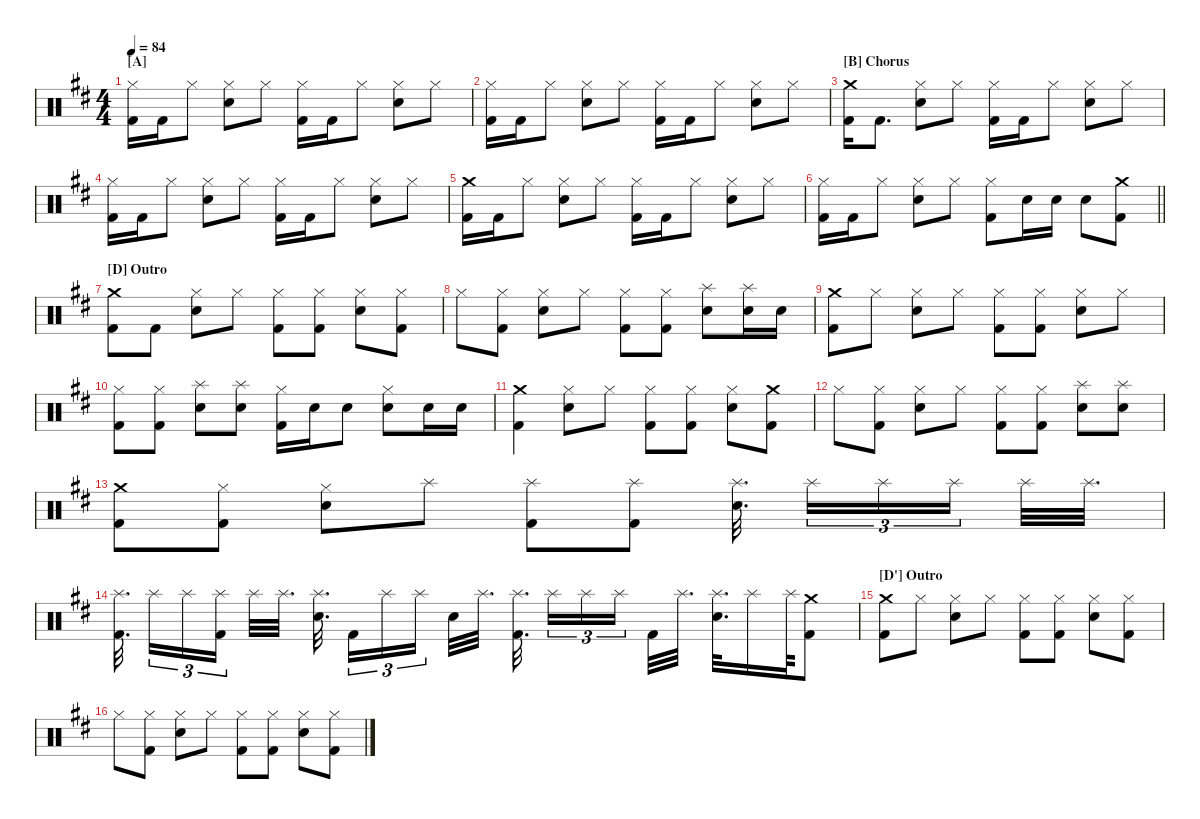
\hideDynamics
\bracketExtendMode nobrackets
\singleTrackTrackNamePolicy hidden
\multiTrackTrackNamePolicy hidden
\otherSystemsTrackNameOrientation horizontal
\track ("Drumkit" "Drums") {instrument percussion}
\staff {score}
\articulation defaults
\ts (4 4)
\section ("A" "")
\tempo 84
\clef neutral
\ks d
("Kick (hit) 2"{acc forcenatural} "Hi-Hat (closed)"{acc forcenatural}).16{dy f beam Down} "Kick (hit) 2"{acc forcenatural}.16{beam Down} "Hi-Hat (closed)"{acc forcenatural}.8{beam Down} ("Snare (hit) 2"{acc forcenatural} "Hi-Hat (closed)"{acc forcenatural}).8{beam Down} "Hi-Hat (closed)"{acc forcenatural}.8{beam Down} ("Kick (hit) 2"{acc forcenatural} "Hi-Hat (closed)"{acc forcenatural}).16{beam Down} "Kick (hit) 2"{acc forcenatural}.16{beam Down} "Hi-Hat (closed)"{acc forcenatural}.8{beam Down} ("Snare (hit) 2"{acc forcenatural} "Hi-Hat (closed)"{acc forcenatural}).8{beam Down} "Hi-Hat (closed)"{acc forcenatural}.8{beam Down} |
("Kick (hit) 2"{acc forcenatural} "Hi-Hat (closed)"{acc forcenatural}).16{beam Down} "Kick (hit) 2"{acc forcenatural}.16{beam Down} "Hi-Hat (closed)"{acc forcenatural}.8{beam Down} ("Snare (hit) 2"{acc forcenatural} "Hi-Hat (closed)"{acc forcenatural}).8{beam Down} "Hi-Hat (closed)"{acc forcenatural}.8{beam Down} ("Kick (hit) 2"{acc forcenatural} "Hi-Hat (closed)"{acc forcenatural}).16{beam Down} "Kick (hit) 2"{acc forcenatural}.16{beam Down} "Hi-Hat (closed)"{acc forcenatural}.8{beam Down} ("Snare (hit) 2"{acc forcenatural} "Hi-Hat (closed)"{acc forcenatural}).8{beam Down} "Hi-Hat (closed)"{acc forcenatural}.8{beam Down} |
\section ("B" "Chorus")
("Kick (hit) 2"{acc forcenatural} "Crash medium (hit)"{acc forcenatural}).16{beam Down} "Kick (hit) 2"{acc forcenatural}.8{d beam Down} ("Snare (hit) 2"{acc forcenatural} "Hi-Hat (closed)"{acc forcenatural}).8{beam Down} "Hi-Hat (closed)"{acc forcenatural}.8{beam Down} ("Kick (hit) 2"{acc forcenatural} "Hi-Hat (closed)"{acc forcenatural}).16{beam Down} "Kick (hit) 2"{acc forcenatural}.16{beam Down} "Hi-Hat (closed)"{acc forcenatural}.8{beam Down} ("Snare (hit) 2"{acc forcenatural} "Hi-Hat (closed)"{acc forcenatural}).8{beam Down} "Hi-Hat (closed)"{acc forcenatural}.8{beam Down} |
("Kick (hit) 2"{acc forcenatural} "Hi-Hat (closed)"{acc forcenatural}).16{beam Down} "Kick (hit) 2"{acc forcenatural}.16{beam Down} "Hi-Hat (closed)"{acc forcenatural}.8{beam Down} ("Snare (hit) 2"{acc forcenatural} "Hi-Hat (closed)"{acc forcenatural}).8{beam Down} "Hi-Hat (closed)"{acc forcenatural}.8{beam Down} ("Kick (hit) 2"{acc forcenatural} "Hi-Hat (closed)"{acc forcenatural}).16{beam Down} "Kick (hit) 2"{acc forcenatural}.16{beam Down} "Hi-Hat (closed)"{acc forcenatural}.8{beam Down} ("Snare (hit) 2"{acc forcenatural} "Hi-Hat (closed)"{acc forcenatural}).8{beam Down} "Hi-Hat (closed)"{acc forcenatural}.8{beam Down} |
("Kick (hit) 2"{acc forcenatural} "Crash medium (hit)"{acc forcenatural}).16{beam Down} "Kick (hit) 2"{acc forcenatural}.16{beam Down} "Hi-Hat (closed)"{acc forcenatural}.8{beam Down} ("Snare (hit) 2"{acc forcenatural} "Hi-Hat (closed)"{acc forcenatural}).8{beam Down} "Hi-Hat (closed)"{acc forcenatural}.8{beam Down} ("Kick (hit) 2"{acc forcenatural} "Hi-Hat (closed)"{acc forcenatural}).16{beam Down} "Kick (hit) 2"{acc forcenatural}.16{beam Down} "Hi-Hat (closed)"{acc forcenatural}.8{beam Down} ("Snare (hit) 2"{acc forcenatural} "Hi-Hat (closed)"{acc forcenatural}).8{beam Down} "Hi-Hat (closed)"{acc forcenatural}.8{beam Down} |
\barLineRight lightlight
("Kick (hit) 2"{acc forcenatural} "Hi-Hat (closed)"{acc forcenatural}).16{beam Down} "Kick (hit) 2"{acc forcenatural}.16{beam Down} "Hi-Hat (closed)"{acc forcenatural}.8{beam Down} ("Snare (hit) 2"{acc forcenatural} "Hi-Hat (closed)"{acc forcenatural}).8{beam Down} "Hi-Hat (closed)"{acc forcenatural}.8{beam Down} ("Kick (hit) 2"{acc forcenatural} "Hi-Hat (closed)"{acc forcenatural}).8{beam Down} "Snare (hit) 2"{acc forcenatural}.16{beam Down} "Snare (hit) 2"{acc forcenatural}.16{beam Down} "Snare (hit) 2"{acc forcenatural}.8{beam Down} ("Kick (hit) 2"{acc forcenatural} "Crash medium (hit)"{acc forcenatural}).8{beam Down} |
\section ("D" "Outro")
("Kick (hit) 2"{acc forcenatural} "Crash medium (hit)"{acc forcenatural}).8{beam Down} "Kick (hit) 2"{acc forcenatural}.8{beam Down} ("Snare (hit) 2"{acc forcenatural} "Hi-Hat (closed)"{acc forcenatural}).8{beam Down} "Hi-Hat (closed)"{acc forcenatural}.8{beam Down} ("Kick (hit) 2"{acc forcenatural} "Hi-Hat (closed)"{acc forcenatural}).8{beam Down} ("Kick (hit) 2"{acc forcenatural} "Hi-Hat (closed)"{acc forcenatural}).8{beam Down} ("Snare (hit) 2"{acc forcenatural} "Hi-Hat (closed)"{acc forcenatural}).8{beam Down} ("Kick (hit) 2"{acc forcenatural} "Hi-Hat (closed)"{acc forcenatural}).8{beam Down} |
"Hi-Hat (closed)"{acc forcenatural}.8{beam Down} ("Kick (hit) 2"{acc forcenatural} "Hi-Hat (closed)"{acc forcenatural}).8{beam Down} ("Snare (hit) 2"{acc forcenatural} "Hi-Hat (closed)"{acc forcenatural}).8{beam Down} "Hi-Hat (closed)"{acc forcenatural}.8{beam Down} ("Kick (hit) 2"{acc forcenatural} "Hi-Hat (closed)"{acc forcenatural}).8{beam Down} ("Kick (hit) 2"{acc forcenatural} "Hi-Hat (closed)"{acc forcenatural}).8{beam Down} ("Snare (hit) 2"{acc forcenatural} "Splash (hit)"{acc forcenatural}).8{beam Down} ("Snare (hit) 2"{acc forcenatural} "Splash (hit)"{acc forcenatural}).16{beam Down} "Snare (hit) 2"{acc forcenatural}.16{beam Down} |
("Kick (hit) 2"{acc forcenatural} "Crash medium (hit)"{acc forcenatural}).8{beam Down} "Hi-Hat (closed)"{acc forcenatural}.8{beam Down} ("Snare (hit) 2"{acc forcenatural} "Hi-Hat (closed)"{acc forcenatural}).8{beam Down} "Hi-Hat (closed)"{acc forcenatural}.8{beam Down} ("Kick (hit) 2"{acc forcenatural} "Hi-Hat (closed)"{acc forcenatural}).8{beam Down} ("Kick (hit) 2"{acc forcenatural} "Hi-Hat (closed)"{acc forcenatural}).8{beam Down} ("Snare (hit) 2"{acc forcenatural} "Hi-Hat (closed)"{acc forcenatural}).8{beam Down} "Hi-Hat (closed)"{acc forcenatural}.8{beam Down} |
("Kick (hit) 2"{acc forcenatural} "Hi-Hat (closed)"{acc forcenatural}).8{beam Down} ("Kick (hit) 2"{acc forcenatural} "Hi-Hat (closed)"{acc forcenatural}).8{beam Down} ("Snare (hit) 2"{acc forcenatural} "Splash (hit)"{acc forcenatural}).8{beam Down} ("Snare (hit) 2"{acc forcenatural} "Splash (hit)"{acc forcenatural}).8{beam Down} ("Kick (hit) 2"{acc forcenatural} "Hi-Hat (closed)"{acc forcenatural}).16{beam Down} "Snare (hit) 2"{acc forcenatural}.16{beam Down} "Snare (hit) 2"{acc forcenatural}.8{beam Down} ("Snare (hit) 2"{acc forcenatural} "Hi-Hat (closed)"{acc forcenatural}).8{beam Down} "Snare (hit) 2"{acc forcenatural}.16{beam Down} "Snare (hit) 2"{acc forcenatural}.16{beam Down} |
("Kick (hit) 2"{acc forcenatural} "Crash medium (hit)"{acc forcenatural}).4{beam Down} ("Snare (hit) 2"{acc forcenatural} "Hi-Hat (closed)"{acc forcenatural}).8{beam Down} "Hi-Hat (closed)"{acc forcenatural}.8{beam Down} ("Kick (hit) 2"{acc forcenatural} "Hi-Hat (closed)"{acc forcenatural}).8{beam Down} ("Kick (hit) 2"{acc forcenatural} "Hi-Hat (closed)"{acc forcenatural}).8{beam Down} ("Snare (hit) 2"{acc forcenatural} "Hi-Hat (closed)"{acc forcenatural}).8{beam Down} ("Kick (hit) 2"{acc forcenatural} "Crash medium (hit)"{acc forcenatural}).8{beam Down} |
"Hi-Hat (closed)"{acc forcenatural}.8{beam Down} ("Kick (hit) 2"{acc forcenatural} "Hi-Hat (closed)"{acc forcenatural}).8{beam Down} ("Snare (hit) 2"{acc forcenatural} "Hi-Hat (closed)"{acc forcenatural}).8{beam Down} "Hi-Hat (closed)"{acc forcenatural}.8{beam Down} ("Kick (hit) 2"{acc forcenatural} "Hi-Hat (closed)"{acc forcenatural}).8{beam Down} ("Kick (hit) 2"{acc forcenatural} "Hi-Hat (closed)"{acc forcenatural}).8{beam Down} ("Snare (hit) 2"{acc forcenatural} "Splash (hit)"{acc forcenatural}).8{beam Down} ("Snare (hit) 2"{acc forcenatural} "Splash (hit)"{acc forcenatural}).8{beam Down} |
("Kick (hit) 2"{acc forcenatural} "Crash medium (hit)"{acc forcenatural}).8{beam Down} ("Kick (hit) 2"{acc forcenatural} "Hi-Hat (closed)"{acc forcenatural}).8{beam Down} ("Snare (hit) 2"{acc forcenatural} "Hi-Hat (closed)"{acc forcenatural}).8{beam Down} "Splash (hit)"{acc forcenatural}.8{beam Down} ("Kick (hit) 2"{acc forcenatural} "Splash (hit)"{acc forcenatural}).8{beam Down} ("Kick (hit) 2"{acc forcenatural} "Splash (hit)"{acc forcenatural}).8{beam Down} ("Snare (hit) 2"{acc forcenatural} "Splash (hit)"{acc forcenatural}).32{d beam Down} "Splash (hit)"{acc forcenatural}.16{tu (3 2) beam Down} "Splash (hit)"{acc forcenatural}.16{tu (3 2) beam Down} "Splash (hit)"{acc forcenatural}.16{tu (3 2) beam Down} "Splash (hit)"{acc forcenatural}.32{beam Down} "Splash (hit)"{acc forcenatural}.32{d beam Down} |
("Kick (hit) 2"{acc forcenatural} "Splash (hit)"{acc forcenatural}).32{d beam Down} "Splash (hit)"{acc forcenatural}.16{tu (3 2) beam Down} "Splash (hit)"{acc forcenatural}.16{tu (3 2) beam Down} ("Kick (hit) 2"{acc forcenatural} "Splash (hit)"{acc forcenatural}).16{tu (3 2) beam Down} "Splash (hit)"{acc forcenatural}.32{beam Down} "Splash (hit)"{acc forcenatural}.32{d beam Down} ("Snare (hit) 2"{acc forcenatural} "Splash (hit)"{acc forcenatural}).32{d beam Down} "Kick (hit) 2"{acc forcenatural}.16{tu (3 2) beam Down} "Splash (hit)"{acc forcenatural}.16{tu (3 2) beam Down} "Splash (hit)"{acc forcenatural}.16{tu (3 2) beam Down} "Snare (hit) 2"{acc forcenatural}.32{beam Down} "Splash (hit)"{acc forcenatural}.32{d beam Down} ("Kick (hit) 2"{acc forcenatural} "Splash (hit)"{acc forcenatural}).32{d beam Down} "Splash (hit)"{acc forcenatural}.16{tu (3 2) beam Down} "Splash (hit)"{acc forcenatural}.16{tu (3 2) beam Down} "Splash (hit)"{acc forcenatural}.16{tu (3 2) beam Down} "Kick (hit) 2"{acc forcenatural}.32{beam Down} "Splash (hit)"{acc forcenatural}.32{d beam Down} ("Snare (hit) 2"{acc forcenatural} "Splash (hit)"{acc forcenatural}).32{d beam Down} "Splash (hit)"{acc forcenatural}.16{beam Down} "Splash (hit)"{acc forcenatural}.64{beam Down} ("Kick (hit) 2"{acc forcenatural} "Crash medium (hit)"{acc forcenatural}).8{beam Down} |
\section ("D'" "Outro")
("Kick (hit) 2"{acc forcenatural} "Crash medium (hit)"{acc forcenatural}).8{beam Down} "Hi-Hat (closed)"{acc forcenatural}.8{beam Down} ("Snare (hit) 2"{acc forcenatural} "Hi-Hat (closed)"{acc forcenatural}).8{beam Down} "Hi-Hat (closed)"{acc forcenatural}.8{beam Down} ("Kick (hit) 2"{acc forcenatural} "Hi-Hat (closed)"{acc forcenatural}).8{beam Down} ("Kick (hit) 2"{acc forcenatural} "Hi-Hat (closed)"{acc forcenatural}).8{beam Down} ("Snare (hit) 2"{acc forcenatural} "Hi-Hat (closed)"{acc forcenatural}).8{beam Down} ("Kick (hit) 2"{acc forcenatural} "Hi-Hat (closed)"{acc forcenatural}).8{beam Down} |
"Hi-Hat (closed)"{acc forcenatural}.8{beam Down} ("Kick (hit) 2"{acc forcenatural} "Hi-Hat (closed)"{acc forcenatural}).8{beam Down} ("Snare (hit) 2"{acc forcenatural} "Hi-Hat (closed)"{acc forcenatural}).8{beam Down} "Hi-Hat (closed)"{acc forcenatural}.8{beam Down} ("Kick (hit) 2"{acc forcenatural} "Hi-Hat (closed)"{acc forcenatural}).8{beam Down} ("Kick (hit) 2"{acc forcenatural} "Hi-Hat (closed)"{acc forcenatural}).8{beam Down} ("Snare (hit) 2"{acc forcenatural} "Hi-Hat (closed)"{acc forcenatural}).8{beam Down} ("Kick (hit) 2"{acc forcenatural} "Hi-Hat (closed)"{acc forcenatural}).8{beam Down}
